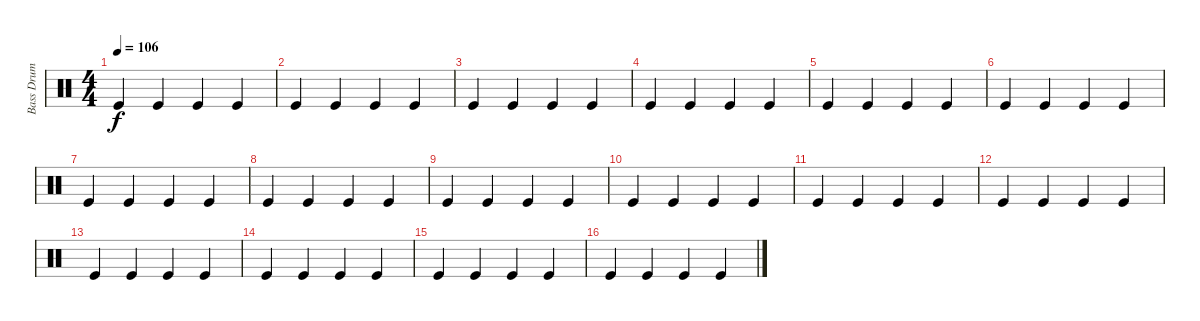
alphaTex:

\track ("Bass Drum" "Bass Drum") {instrument percussion}
\staff {score}
\articulation defaults
\ts (4 4)
\tempo 106
\clef neutral
\ks c "Kick (hit)".4{dy f} "Kick (hit)".4 "Kick (hit)".4 "Kick (hit)".4
|
"Kick (hit)".4 "Kick (hit)".4 "Kick (hit)".4 "Kick (hit)".4 |
"Kick (hit)".4 "Kick (hit)".4 "Kick (hit)".4 "Kick (hit)".4 |
"Kick (hit)".4 "Kick (hit)".4 "Kick (hit)".4 "Kick (hit)".4 |
"Kick (hit)".4 "Kick (hit)".4 "Kick (hit)".4 "Kick (hit)".4 |
"Kick (hit)".4 "Kick (hit)".4 "Kick (hit)".4 "Kick (hit)".4 |
"Kick (hit)".4 "Kick (hit)".4 "Kick (hit)".4 "Kick (hit)".4 |
"Kick (hit)".4 "Kick (hit)".4 "Kick (hit)".4 "Kick (hit)".4 |
"Kick (hit)".4 "Kick (hit)".4 "Kick (hit)".4 "Kick (hit)".4 |
"Kick (hit)".4 "Kick (hit)".4 "Kick (hit)".4 "Kick (hit)".4 |
"Kick (hit)".4 "Kick (hit)".4 "Kick (hit)".4 "Kick (hit)".4 |
"Kick (hit)".4 "Kick (hit)".4 "Kick (hit)".4 "Kick (hit)".4 |
"Kick (hit)".4 "Kick (hit)".4 "Kick (hit)".4 "Kick (hit)".4 |
"Kick (hit)".4 "Kick (hit)".4 "Kick (hit)".4 "Kick (hit)".4 |
"Kick (hit)".4 "Kick (hit)".4 "Kick (hit)".4 "Kick (hit)".4 |
"Kick (hit)".4 "Kick (hit)".4 "Kick (hit)".4 "Kick (hit)".4
